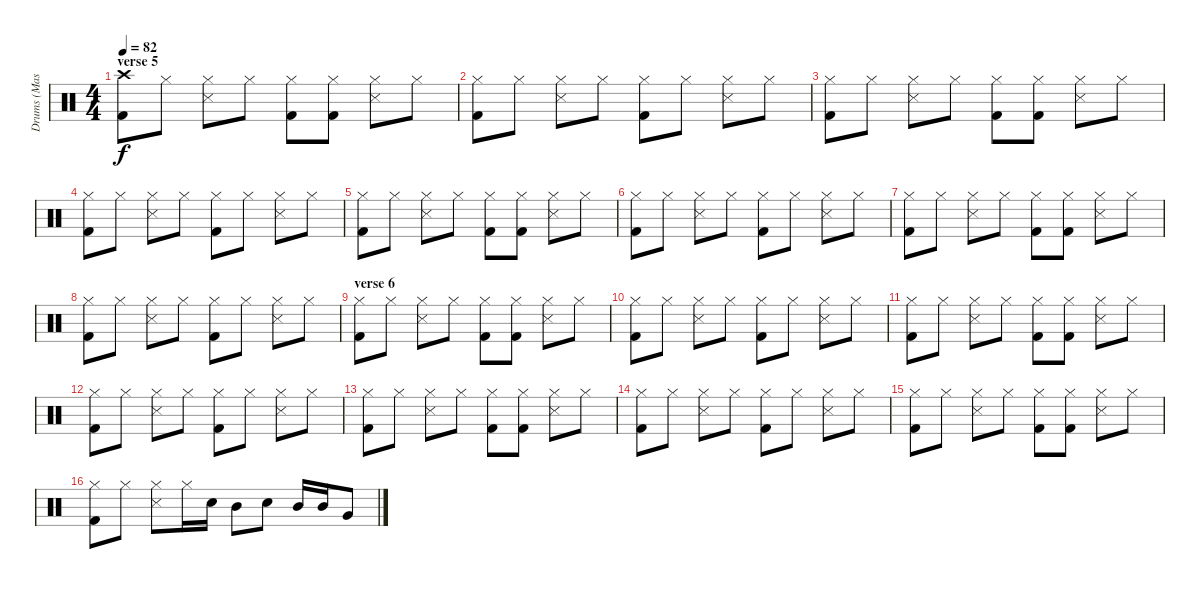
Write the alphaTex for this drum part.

\track ("Drums (Mason)" "Drums (Mas") {instrument percussion}
\staff {score}
\articulation defaults
\ts (4 4)
\section ("" "verse 5")
\tempo 82
\clef neutral
\ks c
("Crash high (hit)" "Kick (hit) 2").8{dy f} "Hi-Hat (closed)".8 ("Hi-Hat (closed)" "Snare (side stick) 3").8 "Hi-Hat (closed)".8 ("Hi-Hat (closed)" "Kick (hit) 2").8 ("Hi-Hat (closed)" "Kick (hit) 2").8 ("Hi-Hat (closed)" "Snare (side stick) 3").8 "Hi-Hat (closed)".8 |
("Hi-Hat (closed)" "Kick (hit) 2").8 "Hi-Hat (closed)".8 ("Hi-Hat (closed)" "Snare (side stick) 3").8 "Hi-Hat (closed)".8 ("Hi-Hat (closed)" "Kick (hit) 2").8 "Hi-Hat (closed)".8 ("Hi-Hat (closed)" "Snare (side stick) 3").8 "Hi-Hat (closed)".8 |
("Hi-Hat (closed)" "Kick (hit) 2").8 "Hi-Hat (closed)".8 ("Hi-Hat (closed)" "Snare (side stick) 3").8 "Hi-Hat (closed)".8 ("Hi-Hat (closed)" "Kick (hit) 2").8 ("Hi-Hat (closed)" "Kick (hit) 2").8 ("Hi-Hat (closed)" "Snare (side stick) 3").8 "Hi-Hat (closed)".8 |
("Hi-Hat (closed)" "Kick (hit) 2").8 "Hi-Hat (closed)".8 ("Hi-Hat (closed)" "Snare (side stick) 3").8 "Hi-Hat (closed)".8 ("Hi-Hat (closed)" "Kick (hit) 2").8 "Hi-Hat (closed)".8 ("Hi-Hat (closed)" "Snare (side stick) 3").8 "Hi-Hat (closed)".8 |
("Hi-Hat (closed)" "Kick (hit) 2").8 "Hi-Hat (closed)".8 ("Hi-Hat (closed)" "Snare (side stick) 3").8 "Hi-Hat (closed)".8 ("Hi-Hat (closed)" "Kick (hit) 2").8 ("Hi-Hat (closed)" "Kick (hit) 2").8 ("Hi-Hat (closed)" "Snare (side stick) 3").8 "Hi-Hat (closed)".8 |
("Hi-Hat (closed)" "Kick (hit) 2").8 "Hi-Hat (closed)".8 ("Hi-Hat (closed)" "Snare (side stick) 3").8 "Hi-Hat (closed)".8 ("Hi-Hat (closed)" "Kick (hit) 2").8 "Hi-Hat (closed)".8 ("Hi-Hat (closed)" "Snare (side stick) 3").8 "Hi-Hat (closed)".8 |
("Hi-Hat (closed)" "Kick (hit) 2").8 "Hi-Hat (closed)".8 ("Hi-Hat (closed)" "Snare (side stick) 3").8 "Hi-Hat (closed)".8 ("Hi-Hat (closed)" "Kick (hit) 2").8 ("Hi-Hat (closed)" "Kick (hit) 2").8 ("Hi-Hat (closed)" "Snare (side stick) 3").8 "Hi-Hat (closed)".8 |
("Hi-Hat (closed)" "Kick (hit) 2").8 "Hi-Hat (closed)".8 ("Hi-Hat (closed)" "Snare (side stick) 3").8 "Hi-Hat (closed)".8 ("Hi-Hat (closed)" "Kick (hit) 2").8 "Hi-Hat (closed)".8 ("Hi-Hat (closed)" "Snare (side stick) 3").8 "Hi-Hat (closed)".8 |
\section ("" "verse 6")
("Hi-Hat (closed)" "Kick (hit) 2").8 "Hi-Hat (closed)".8 ("Hi-Hat (closed)" "Snare (side stick) 3").8 "Hi-Hat (closed)".8 ("Hi-Hat (closed)" "Kick (hit) 2").8 ("Hi-Hat (closed)" "Kick (hit) 2").8 ("Hi-Hat (closed)" "Snare (side stick) 3").8 "Hi-Hat (closed)".8 |
("Hi-Hat (closed)" "Kick (hit) 2").8 "Hi-Hat (closed)".8 ("Hi-Hat (closed)" "Snare (side stick) 3").8 "Hi-Hat (closed)".8 ("Hi-Hat (closed)" "Kick (hit) 2").8 "Hi-Hat (closed)".8 ("Hi-Hat (closed)" "Snare (side stick) 3").8 "Hi-Hat (closed)".8 |
("Hi-Hat (closed)" "Kick (hit) 2").8 "Hi-Hat (closed)".8 ("Hi-Hat (closed)" "Snare (side stick) 3").8 "Hi-Hat (closed)".8 ("Hi-Hat (closed)" "Kick (hit) 2").8 ("Hi-Hat (closed)" "Kick (hit) 2").8 ("Hi-Hat (closed)" "Snare (side stick) 3").8 "Hi-Hat (closed)".8 |
("Hi-Hat (closed)" "Kick (hit) 2").8 "Hi-Hat (closed)".8 ("Hi-Hat (closed)" "Snare (side stick) 3").8 "Hi-Hat (closed)".8 ("Hi-Hat (closed)" "Kick (hit) 2").8 "Hi-Hat (closed)".8 ("Hi-Hat (closed)" "Snare (side stick) 3").8 "Hi-Hat (closed)".8 |
("Hi-Hat (closed)" "Kick (hit) 2").8 "Hi-Hat (closed)".8 ("Hi-Hat (closed)" "Snare (side stick) 3").8 "Hi-Hat (closed)".8 ("Hi-Hat (closed)" "Kick (hit) 2").8 ("Hi-Hat (closed)" "Kick (hit) 2").8 ("Hi-Hat (closed)" "Snare (side stick) 3").8 "Hi-Hat (closed)".8 |
("Hi-Hat (closed)" "Kick (hit) 2").8 "Hi-Hat (closed)".8 ("Hi-Hat (closed)" "Snare (side stick) 3").8 "Hi-Hat (closed)".8 ("Hi-Hat (closed)" "Kick (hit) 2").8 "Hi-Hat (closed)".8 ("Hi-Hat (closed)" "Snare (side stick) 3").8 "Hi-Hat (closed)".8 |
("Hi-Hat (closed)" "Kick (hit) 2").8 "Hi-Hat (closed)".8 ("Hi-Hat (closed)" "Snare (side stick) 3").8 "Hi-Hat (closed)".8 ("Hi-Hat (closed)" "Kick (hit) 2").8 ("Hi-Hat (closed)" "Kick (hit) 2").8 ("Hi-Hat (closed)" "Snare (side stick) 3").8 "Hi-Hat (closed)".8 |
("Hi-Hat (closed)" "Kick (hit) 2").8 "Hi-Hat (closed)".8 ("Hi-Hat (closed)" "Snare (side stick) 3").8 "Hi-Hat (closed)".16 "Electric Snare (hit)".16 "Mid Tom (hit)".8 "Electric Snare (hit)".8 "Mid Tom (hit)".16 "Mid Tom (hit)".16 "Very Low Tom (hit)".8
